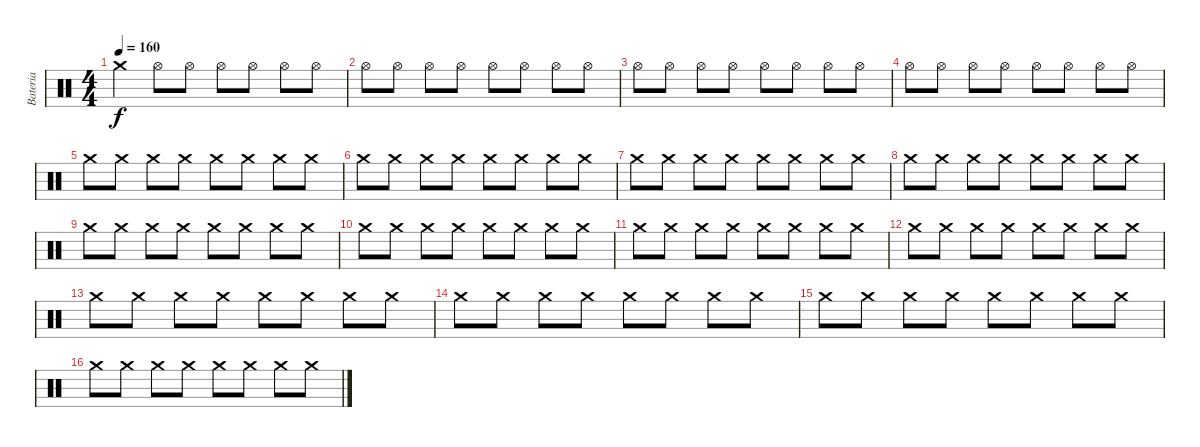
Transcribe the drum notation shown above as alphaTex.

\track ("Bateria" "Bateria") {instrument percussion}
\staff {score}
\articulation defaults
\ts (4 4)
\tempo 160
\clef neutral
\ks c "Crash medium (hit)".4{dy f} "Hi-Hat (open)".8 "Hi-Hat (open)".8 "Hi-Hat (open)".8 "Hi-Hat (open)".8 "Hi-Hat (open)".8 "Hi-Hat (open)".8
|
"Hi-Hat (open)".8 "Hi-Hat (open)".8 "Hi-Hat (open)".8 "Hi-Hat (open)".8 "Hi-Hat (open)".8 "Hi-Hat (open)".8 "Hi-Hat (open)".8 "Hi-Hat (open)".8 |
"Hi-Hat (open)".8 "Hi-Hat (open)".8 "Hi-Hat (open)".8 "Hi-Hat (open)".8 "Hi-Hat (open)".8 "Hi-Hat (open)".8 "Hi-Hat (open)".8 "Hi-Hat (open)".8 |
"Hi-Hat (open)".8 "Hi-Hat (open)".8 "Hi-Hat (open)".8 "Hi-Hat (open)".8 "Hi-Hat (open)".8 "Hi-Hat (open)".8 "Hi-Hat (open)".8 "Hi-Hat (open)".8 |
"Crash medium (hit)".8 "Crash medium (hit)".8 "Crash medium (hit)".8 "Crash medium (hit)".8 "Crash medium (hit)".8 "Crash medium (hit)".8 "Crash medium (hit)".8 "Crash medium (hit)".8 |
"Crash medium (hit)".8 "Crash medium (hit)".8 "Crash medium (hit)".8 "Crash medium (hit)".8 "Crash medium (hit)".8 "Crash medium (hit)".8 "Crash medium (hit)".8 "Crash medium (hit)".8 |
"Crash medium (hit)".8 "Crash medium (hit)".8 "Crash medium (hit)".8 "Crash medium (hit)".8 "Crash medium (hit)".8 "Crash medium (hit)".8 "Crash medium (hit)".8 "Crash medium (hit)".8 |
"Crash medium (hit)".8 "Crash medium (hit)".8 "Crash medium (hit)".8 "Crash medium (hit)".8 "Crash medium (hit)".8 "Crash medium (hit)".8 "Crash medium (hit)".8 "Crash medium (hit)".8 |
"Crash medium (hit)".8 "Crash medium (hit)".8 "Crash medium (hit)".8 "Crash medium (hit)".8 "Crash medium (hit)".8 "Crash medium (hit)".8 "Crash medium (hit)".8 "Crash medium (hit)".8 |
"Crash medium (hit)".8 "Crash medium (hit)".8 "Crash medium (hit)".8 "Crash medium (hit)".8 "Crash medium (hit)".8 "Crash medium (hit)".8 "Crash medium (hit)".8 "Crash medium (hit)".8 |
"Crash medium (hit)".8 "Crash medium (hit)".8 "Crash medium (hit)".8 "Crash medium (hit)".8 "Crash medium (hit)".8 "Crash medium (hit)".8 "Crash medium (hit)".8 "Crash medium (hit)".8 |
"Crash medium (hit)".8 "Crash medium (hit)".8 "Crash medium (hit)".8 "Crash medium (hit)".8 "Crash medium (hit)".8 "Crash medium (hit)".8 "Crash medium (hit)".8 "Crash medium (hit)".8 |
"Crash medium (hit)".8 "Crash medium (hit)".8 "Crash medium (hit)".8 "Crash medium (hit)".8 "Crash medium (hit)".8 "Crash medium (hit)".8 "Crash medium (hit)".8 "Crash medium (hit)".8 |
"Crash medium (hit)".8 "Crash medium (hit)".8 "Crash medium (hit)".8 "Crash medium (hit)".8 "Crash medium (hit)".8 "Crash medium (hit)".8 "Crash medium (hit)".8 "Crash medium (hit)".8 |
"Crash medium (hit)".8 "Crash medium (hit)".8 "Crash medium (hit)".8 "Crash medium (hit)".8 "Crash medium (hit)".8 "Crash medium (hit)".8 "Crash medium (hit)".8 "Crash medium (hit)".8 |
"Crash medium (hit)".8 "Crash medium (hit)".8 "Crash medium (hit)".8 "Crash medium (hit)".8 "Crash medium (hit)".8 "Crash medium (hit)".8 "Crash medium (hit)".8 "Crash medium (hit)".8
